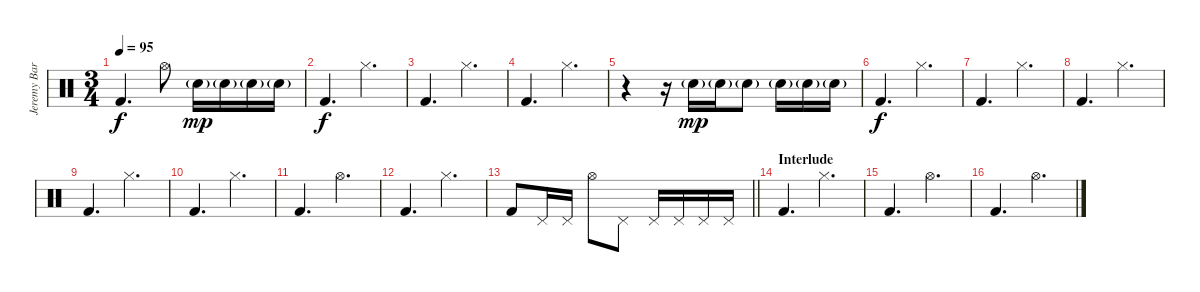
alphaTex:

\track ("Jeremy Barnes - Drums" "Jeremy Bar") {instrument percussion}
\staff {score}
\articulation defaults
\ts (3 4)
\tempo 95
\clef neutral
\ks c "Kick (hit) 2".4{d dy f} "Hi-Hat (open)".8 "Electric Snare (hit)"{g}.16{dy mp} "Electric Snare (hit)"{g}.16 "Electric Snare (hit)"{g}.16 "Electric Snare (hit)"{g}.16
|
"Kick (hit) 2".4{d dy f} "Hi-Hat (closed)".4{d} |
"Kick (hit) 2".4{d} "Hi-Hat (closed)".4{d} |
"Kick (hit) 2".4{d} "Hi-Hat (closed)".4{d} |
r.4 r.16 "Electric Snare (hit)"{g}.16{dy mp} "Electric Snare (hit)"{g}.16 "Electric Snare (hit)"{g}.8 "Electric Snare (hit)"{g}.16 "Electric Snare (hit)"{g}.16 "Electric Snare (hit)"{g}.16 |
"Kick (hit) 2".4{d dy f} "Hi-Hat (closed)".4{d} |
"Kick (hit) 2".4{d} "Hi-Hat (closed)".4{d} |
"Kick (hit) 2".4{d} "Hi-Hat (closed)".4{d} |
"Kick (hit) 2".4{d} "Hi-Hat (closed)".4{d} |
"Kick (hit) 2".4{d} "Hi-Hat (closed)".4{d} |
"Kick (hit) 2".4{d} "Hi-Hat (open)".4{d} |
"Kick (hit) 2".4{d} "Hi-Hat (closed)".4{d} |
\barLineRight lightlight "Kick (hit) 2".8 "Pedal Hi-Hat (hit)".16 "Pedal Hi-Hat (hit)".16 "Hi-Hat (open)".8 "Pedal Hi-Hat (hit)".8 "Pedal Hi-Hat (hit)".16 "Pedal Hi-Hat (hit)".16 "Pedal Hi-Hat (hit)".16 "Pedal Hi-Hat (hit)".16
|
\section ("" "Interlude")
"Kick (hit) 2".4{d} "Hi-Hat (closed)".4{d} |
"Kick (hit) 2".4{d} "Hi-Hat (open)".4{d} |
"Kick (hit) 2".4{d} "Hi-Hat (open)".4{d}
